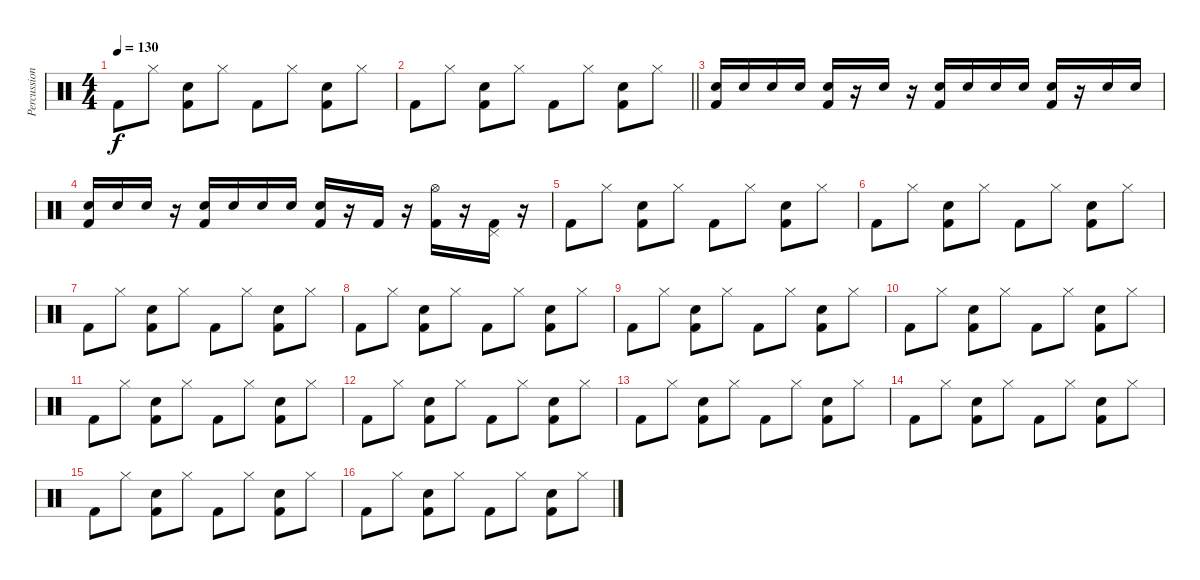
\track ("Percussion" "Percussion") {instrument percussion}
\staff {score}
\articulation defaults
\ts (4 4)
\tempo 130
\clef neutral
\ks c "Kick (hit) 2".8{dy f} "Hi-Hat (closed)".8
("Electric Snare (hit)" "Kick (hit) 2").8 "Hi-Hat (closed)".8 "Kick (hit) 2".8 "Hi-Hat (closed)".8 ("Electric Snare (hit)" "Kick (hit) 2").8 "Hi-Hat (closed)".8 |
\barLineRight lightlight "Kick (hit) 2".8 "Hi-Hat (closed)".8
("Electric Snare (hit)" "Kick (hit) 2").8 "Hi-Hat (closed)".8 "Kick (hit) 2".8 "Hi-Hat (closed)".8 ("Electric Snare (hit)" "Kick (hit) 2").8 "Hi-Hat (closed)".8 |
("Electric Snare (hit)" "Kick (hit) 2").16 "Electric Snare (hit)".16 "Electric Snare (hit)".16 "Electric Snare (hit)".16 ("Electric Snare (hit)" "Kick (hit) 2").16 r.16 "Electric Snare (hit)".16 r.16 ("Electric Snare (hit)" "Kick (hit) 2").16 "Electric Snare (hit)".16 "Electric Snare (hit)".16 "Electric Snare (hit)".16 ("Electric Snare (hit)" "Kick (hit) 2").16 r.16 "Electric Snare (hit)".16 "Electric Snare (hit)".16 |
("Electric Snare (hit)" "Kick (hit) 2").16 "Electric Snare (hit)".16 "Electric Snare (hit)".16 r.16 ("Electric Snare (hit)" "Kick (hit) 2").16 "Electric Snare (hit)".16 "Electric Snare (hit)".16 "Electric Snare (hit)".16 ("Electric Snare (hit)" "Kick (hit) 2").16 r.16 "Kick (hit) 2".16 r.16 ("Hi-Hat (open)" "Kick (hit) 2").16 r.16 ("Pedal Hi-Hat (hit)" "Kick (hit) 2").16 r.16 |
"Kick (hit) 2".8 "Hi-Hat (closed)".8 ("Electric Snare (hit)" "Kick (hit) 2").8 "Hi-Hat (closed)".8 "Kick (hit) 2".8 "Hi-Hat (closed)".8 ("Electric Snare (hit)" "Kick (hit) 2").8 "Hi-Hat (closed)".8 |
"Kick (hit) 2".8 "Hi-Hat (closed)".8 ("Electric Snare (hit)" "Kick (hit) 2").8 "Hi-Hat (closed)".8 "Kick (hit) 2".8 "Hi-Hat (closed)".8 ("Electric Snare (hit)" "Kick (hit) 2").8 "Hi-Hat (closed)".8 |
"Kick (hit) 2".8 "Hi-Hat (closed)".8 ("Electric Snare (hit)" "Kick (hit) 2").8 "Hi-Hat (closed)".8 "Kick (hit) 2".8 "Hi-Hat (closed)".8 ("Electric Snare (hit)" "Kick (hit) 2").8 "Hi-Hat (closed)".8 |
"Kick (hit) 2".8 "Hi-Hat (closed)".8 ("Electric Snare (hit)" "Kick (hit) 2").8 "Hi-Hat (closed)".8 "Kick (hit) 2".8 "Hi-Hat (closed)".8 ("Electric Snare (hit)" "Kick (hit) 2").8 "Hi-Hat (closed)".8 |
"Kick (hit) 2".8 "Hi-Hat (closed)".8 ("Electric Snare (hit)" "Kick (hit) 2").8 "Hi-Hat (closed)".8 "Kick (hit) 2".8 "Hi-Hat (closed)".8 ("Electric Snare (hit)" "Kick (hit) 2").8 "Hi-Hat (closed)".8 |
"Kick (hit) 2".8 "Hi-Hat (closed)".8 ("Electric Snare (hit)" "Kick (hit) 2").8 "Hi-Hat (closed)".8 "Kick (hit) 2".8 "Hi-Hat (closed)".8 ("Electric Snare (hit)" "Kick (hit) 2").8 "Hi-Hat (closed)".8 |
"Kick (hit) 2".8 "Hi-Hat (closed)".8 ("Electric Snare (hit)" "Kick (hit) 2").8 "Hi-Hat (closed)".8 "Kick (hit) 2".8 "Hi-Hat (closed)".8 ("Electric Snare (hit)" "Kick (hit) 2").8 "Hi-Hat (closed)".8 |
"Kick (hit) 2".8 "Hi-Hat (closed)".8 ("Electric Snare (hit)" "Kick (hit) 2").8 "Hi-Hat (closed)".8 "Kick (hit) 2".8 "Hi-Hat (closed)".8 ("Electric Snare (hit)" "Kick (hit) 2").8 "Hi-Hat (closed)".8 |
"Kick (hit) 2".8 "Hi-Hat (closed)".8 ("Electric Snare (hit)" "Kick (hit) 2").8 "Hi-Hat (closed)".8 "Kick (hit) 2".8 "Hi-Hat (closed)".8 ("Electric Snare (hit)" "Kick (hit) 2").8 "Hi-Hat (closed)".8 |
"Kick (hit) 2".8 "Hi-Hat (closed)".8 ("Electric Snare (hit)" "Kick (hit) 2").8 "Hi-Hat (closed)".8 "Kick (hit) 2".8 "Hi-Hat (closed)".8 ("Electric Snare (hit)" "Kick (hit) 2").8 "Hi-Hat (closed)".8 |
"Kick (hit) 2".8 "Hi-Hat (closed)".8 ("Electric Snare (hit)" "Kick (hit) 2").8 "Hi-Hat (closed)".8 "Kick (hit) 2".8 "Hi-Hat (closed)".8 ("Electric Snare (hit)" "Kick (hit) 2").8 "Hi-Hat (closed)".8 |
"Kick (hit) 2".8 "Hi-Hat (closed)".8 ("Electric Snare (hit)" "Kick (hit) 2").8 "Hi-Hat (closed)".8 "Kick (hit) 2".8 "Hi-Hat (closed)".8 ("Electric Snare (hit)" "Kick (hit) 2").8 "Hi-Hat (closed)".8
